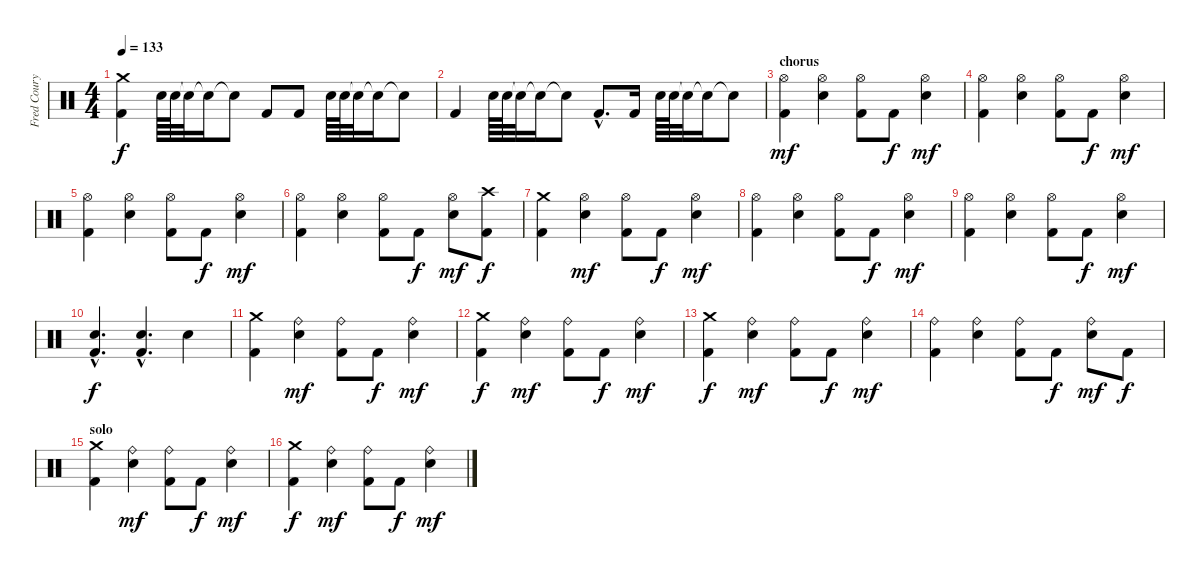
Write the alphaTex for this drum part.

\track ("Fred Coury" "Fred Coury") {instrument percussion}
\staff {score}
\articulation defaults
\ts (4 4)
\tempo 133
\clef neutral
\ks c
("Kick (hit) 2" "Crash medium (hit)").4{dy f} "Snare (hit) 2".64 "Snare (hit) 2".64 "Snare (hit)"{t}.32 "Snare (hit)"{t}.16 "Snare (hit)"{t}.8 "Kick (hit) 2".8 "Kick (hit) 2".8 "Snare (hit) 2".64 "Snare (hit) 2".64 "Snare (hit)"{t}.32 "Snare (hit)"{t}.16 "Snare (hit)"{t}.8 |
"Kick (hit) 2".4 "Snare (hit) 2".64 "Snare (hit) 2".64 "Snare (hit)"{t}.32 "Snare (hit)"{t}.16 "Snare (hit)"{t}.8 "Kick (hit) 2"{hac}.8{d} "Kick (hit) 2".16 "Snare (hit) 2".64 "Snare (hit) 2".64 "Snare (hit)"{t}.32 "Snare (hit)"{t}.16 "Snare (hit)"{t}.8 |
\section ("" "chorus")
("Kick (hit) 2" "Hi-Hat (open)").4{dy mf} ("Hi-Hat (open)" "Snare (hit) 2").4 ("Kick (hit) 2" "Hi-Hat (open)").8 "Kick (hit) 2".8{dy f} ("Hi-Hat (open)" "Snare (hit) 2").4{dy mf} |
("Kick (hit) 2" "Hi-Hat (open)").4 ("Hi-Hat (open)" "Snare (hit) 2").4 ("Kick (hit) 2" "Hi-Hat (open)").8 "Kick (hit) 2".8{dy f} ("Hi-Hat (open)" "Snare (hit) 2").4{dy mf} |
("Kick (hit) 2" "Hi-Hat (open)").4 ("Hi-Hat (open)" "Snare (hit) 2").4 ("Kick (hit) 2" "Hi-Hat (open)").8 "Kick (hit) 2".8{dy f} ("Hi-Hat (open)" "Snare (hit) 2").4{dy mf} |
("Kick (hit) 2" "Hi-Hat (open)").4 ("Hi-Hat (open)" "Snare (hit) 2").4 ("Kick (hit) 2" "Hi-Hat (open)").8 "Kick (hit) 2".8{dy f} ("Hi-Hat (open)" "Snare (hit) 2").8{dy mf} ("Kick (hit) 2" "Crash high (hit)").8{dy f} |
("Kick (hit) 2" "Crash medium (hit)").4 ("Hi-Hat (open)" "Snare (hit) 2").4{dy mf} ("Kick (hit) 2" "Hi-Hat (open)").8 "Kick (hit) 2".8{dy f} ("Hi-Hat (open)" "Snare (hit) 2").4{dy mf} |
("Kick (hit) 2" "Hi-Hat (open)").4 ("Hi-Hat (open)" "Snare (hit) 2").4 ("Kick (hit) 2" "Hi-Hat (open)").8 "Kick (hit) 2".8{dy f} ("Hi-Hat (open)" "Snare (hit) 2").4{dy mf} |
("Kick (hit) 2" "Hi-Hat (open)").4 ("Hi-Hat (open)" "Snare (hit) 2").4 ("Kick (hit) 2" "Hi-Hat (open)").8 "Kick (hit) 2".8{dy f} ("Hi-Hat (open)" "Snare (hit) 2").4{dy mf} |
("Kick (hit) 2"{hac} "Snare (hit) 2"{hac}).4{d dy f} ("Kick (hit) 2"{hac} "Snare (hit) 2"{hac}).4{d} "Snare (hit) 2".4 |
("Kick (hit) 2" "Crash medium (hit)").4 ("Ride (bell)" "Snare (hit) 2").4{dy mf} ("Kick (hit) 2" "Ride (bell)").8 "Kick (hit) 2".8{dy f} ("Ride (bell)" "Snare (hit) 2").4{dy mf} |
("Kick (hit) 2" "Crash medium (hit)").4{dy f} ("Ride (bell)" "Snare (hit) 2").4{dy mf} ("Kick (hit) 2" "Ride (bell)").8 "Kick (hit) 2".8{dy f} ("Ride (bell)" "Snare (hit) 2").4{dy mf} |
("Kick (hit) 2" "Crash medium (hit)").4{dy f} ("Ride (bell)" "Snare (hit) 2").4{dy mf} ("Kick (hit) 2" "Ride (bell)").8 "Kick (hit) 2".8{dy f} ("Ride (bell)" "Snare (hit) 2").4{dy mf} |
("Kick (hit) 2" "Ride (bell)").4 ("Ride (bell)" "Snare (hit) 2").4 ("Kick (hit) 2" "Ride (bell)").8 "Kick (hit) 2".8{dy f} ("Ride (bell)" "Snare (hit) 2").8{dy mf} "Kick (hit) 2".8{dy f} |
\section ("" "solo")
("Kick (hit) 2" "Crash medium (hit)").4 ("Ride (bell)" "Snare (hit) 2").4{dy mf} ("Kick (hit) 2" "Ride (bell)").8 "Kick (hit) 2".8{dy f} ("Ride (bell)" "Snare (hit) 2").4{dy mf} |
("Kick (hit) 2" "Crash medium (hit)").4{dy f} ("Ride (bell)" "Snare (hit) 2").4{dy mf} ("Kick (hit) 2" "Ride (bell)").8 "Kick (hit) 2".8{dy f} ("Ride (bell)" "Snare (hit) 2").4{dy mf}
